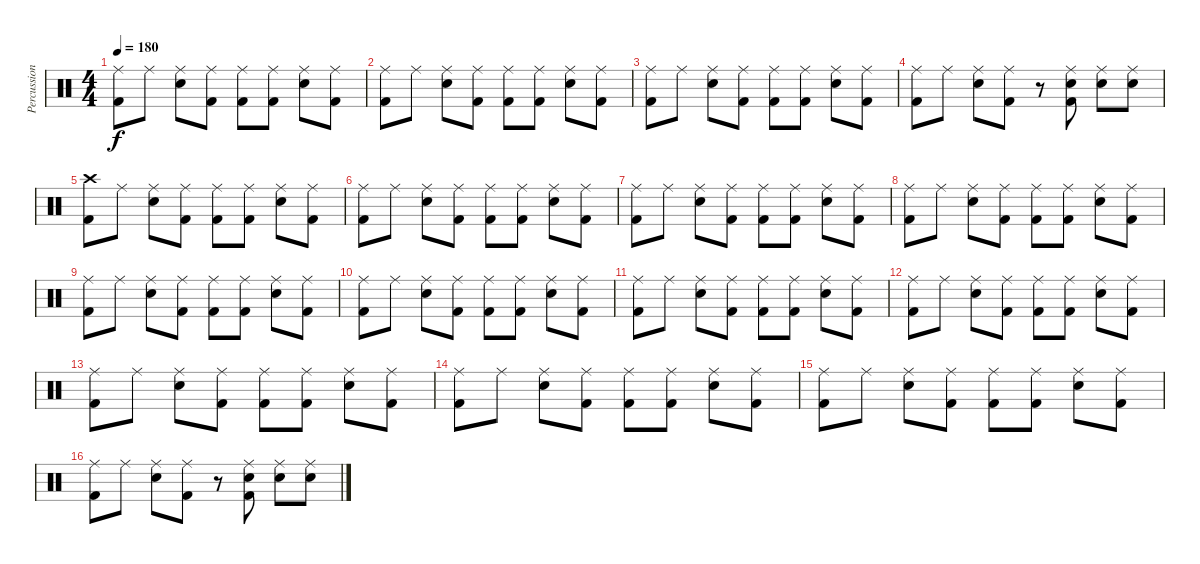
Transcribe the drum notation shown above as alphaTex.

\track ("Percussions" "Percussion") {instrument percussion}
\staff {score}
\articulation defaults
\ts (4 4)
\tempo 180
\clef neutral
\ks c
("Ride (middle)" "Kick (hit) 2").8{dy f} "Ride (middle)".8 ("Ride (middle)" "Snare (hit) 2").8 ("Ride (middle)" "Kick (hit) 2").8 ("Ride (middle)" "Kick (hit) 2").8 ("Ride (middle)" "Kick (hit) 2").8 ("Ride (middle)" "Snare (hit) 2").8 ("Ride (middle)" "Kick (hit) 2").8 |
("Ride (middle)" "Kick (hit) 2").8 "Ride (middle)".8 ("Ride (middle)" "Snare (hit) 2").8 ("Ride (middle)" "Kick (hit) 2").8 ("Ride (middle)" "Kick (hit) 2").8 ("Ride (middle)" "Kick (hit) 2").8 ("Ride (middle)" "Snare (hit) 2").8 ("Ride (middle)" "Kick (hit) 2").8 |
("Ride (middle)" "Kick (hit) 2").8 "Ride (middle)".8 ("Ride (middle)" "Snare (hit) 2").8 ("Ride (middle)" "Kick (hit) 2").8 ("Ride (middle)" "Kick (hit) 2").8 ("Ride (middle)" "Kick (hit) 2").8 ("Ride (middle)" "Snare (hit) 2").8 ("Ride (middle)" "Kick (hit) 2").8 |
("Ride (middle)" "Kick (hit) 2").8 "Ride (middle)".8 ("Ride (middle)" "Snare (hit) 2").8 ("Ride (middle)" "Kick (hit) 2").8 r.8 ("Ride (middle)" "Snare (hit) 2" "Kick (hit) 2").8 ("Ride (middle)" "Snare (hit) 2").8 ("Ride (middle)" "Snare (hit) 2").8 |
("Crash high (hit)" "Kick (hit) 2").8 "Ride (middle)".8 ("Ride (middle)" "Snare (hit) 2").8 ("Ride (middle)" "Kick (hit) 2").8 ("Ride (middle)" "Kick (hit) 2").8 ("Ride (middle)" "Kick (hit) 2").8 ("Ride (middle)" "Snare (hit) 2").8 ("Ride (middle)" "Kick (hit) 2").8 |
("Ride (middle)" "Kick (hit) 2").8 "Ride (middle)".8 ("Ride (middle)" "Snare (hit) 2").8 ("Ride (middle)" "Kick (hit) 2").8 ("Ride (middle)" "Kick (hit) 2").8 ("Ride (middle)" "Kick (hit) 2").8 ("Ride (middle)" "Snare (hit) 2").8 ("Ride (middle)" "Kick (hit) 2").8 |
("Ride (middle)" "Kick (hit) 2").8 "Ride (middle)".8 ("Ride (middle)" "Snare (hit) 2").8 ("Ride (middle)" "Kick (hit) 2").8 ("Ride (middle)" "Kick (hit) 2").8 ("Ride (middle)" "Kick (hit) 2").8 ("Ride (middle)" "Snare (hit) 2").8 ("Ride (middle)" "Kick (hit) 2").8 |
("Ride (middle)" "Kick (hit) 2").8 "Ride (middle)".8 ("Ride (middle)" "Snare (hit) 2").8 ("Ride (middle)" "Kick (hit) 2").8 ("Ride (middle)" "Kick (hit) 2").8 ("Ride (middle)" "Kick (hit) 2").8 ("Ride (middle)" "Snare (hit) 2").8 ("Ride (middle)" "Kick (hit) 2").8 |
("Ride (middle)" "Kick (hit) 2").8 "Ride (middle)".8 ("Ride (middle)" "Snare (hit) 2").8 ("Ride (middle)" "Kick (hit) 2").8 ("Ride (middle)" "Kick (hit) 2").8 ("Ride (middle)" "Kick (hit) 2").8 ("Ride (middle)" "Snare (hit) 2").8 ("Ride (middle)" "Kick (hit) 2").8 |
("Ride (middle)" "Kick (hit) 2").8 "Ride (middle)".8 ("Ride (middle)" "Snare (hit) 2").8 ("Ride (middle)" "Kick (hit) 2").8 ("Ride (middle)" "Kick (hit) 2").8 ("Ride (middle)" "Kick (hit) 2").8 ("Ride (middle)" "Snare (hit) 2").8 ("Ride (middle)" "Kick (hit) 2").8 |
("Ride (middle)" "Kick (hit) 2").8 "Ride (middle)".8 ("Ride (middle)" "Snare (hit) 2").8 ("Ride (middle)" "Kick (hit) 2").8 ("Ride (middle)" "Kick (hit) 2").8 ("Ride (middle)" "Kick (hit) 2").8 ("Ride (middle)" "Snare (hit) 2").8 ("Ride (middle)" "Kick (hit) 2").8 |
("Ride (middle)" "Kick (hit) 2").8 "Ride (middle)".8 ("Ride (middle)" "Snare (hit) 2").8 ("Ride (middle)" "Kick (hit) 2").8 ("Ride (middle)" "Kick (hit) 2").8 ("Ride (middle)" "Kick (hit) 2").8 ("Ride (middle)" "Snare (hit) 2").8 ("Ride (middle)" "Kick (hit) 2").8 |
("Ride (middle)" "Kick (hit) 2").8 "Ride (middle)".8 ("Ride (middle)" "Snare (hit) 2").8 ("Ride (middle)" "Kick (hit) 2").8 ("Ride (middle)" "Kick (hit) 2").8 ("Ride (middle)" "Kick (hit) 2").8 ("Ride (middle)" "Snare (hit) 2").8 ("Ride (middle)" "Kick (hit) 2").8 |
("Ride (middle)" "Kick (hit) 2").8 "Ride (middle)".8 ("Ride (middle)" "Snare (hit) 2").8 ("Ride (middle)" "Kick (hit) 2").8 ("Ride (middle)" "Kick (hit) 2").8 ("Ride (middle)" "Kick (hit) 2").8 ("Ride (middle)" "Snare (hit) 2").8 ("Ride (middle)" "Kick (hit) 2").8 |
("Ride (middle)" "Kick (hit) 2").8 "Ride (middle)".8 ("Ride (middle)" "Snare (hit) 2").8 ("Ride (middle)" "Kick (hit) 2").8 ("Ride (middle)" "Kick (hit) 2").8 ("Ride (middle)" "Kick (hit) 2").8 ("Ride (middle)" "Snare (hit) 2").8 ("Ride (middle)" "Kick (hit) 2").8 |
("Ride (middle)" "Kick (hit) 2").8 "Ride (middle)".8 ("Ride (middle)" "Snare (hit) 2").8 ("Ride (middle)" "Kick (hit) 2").8 r.8 ("Ride (middle)" "Snare (hit) 2" "Kick (hit) 2").8 ("Ride (middle)" "Snare (hit) 2").8 ("Ride (middle)" "Snare (hit) 2").8
